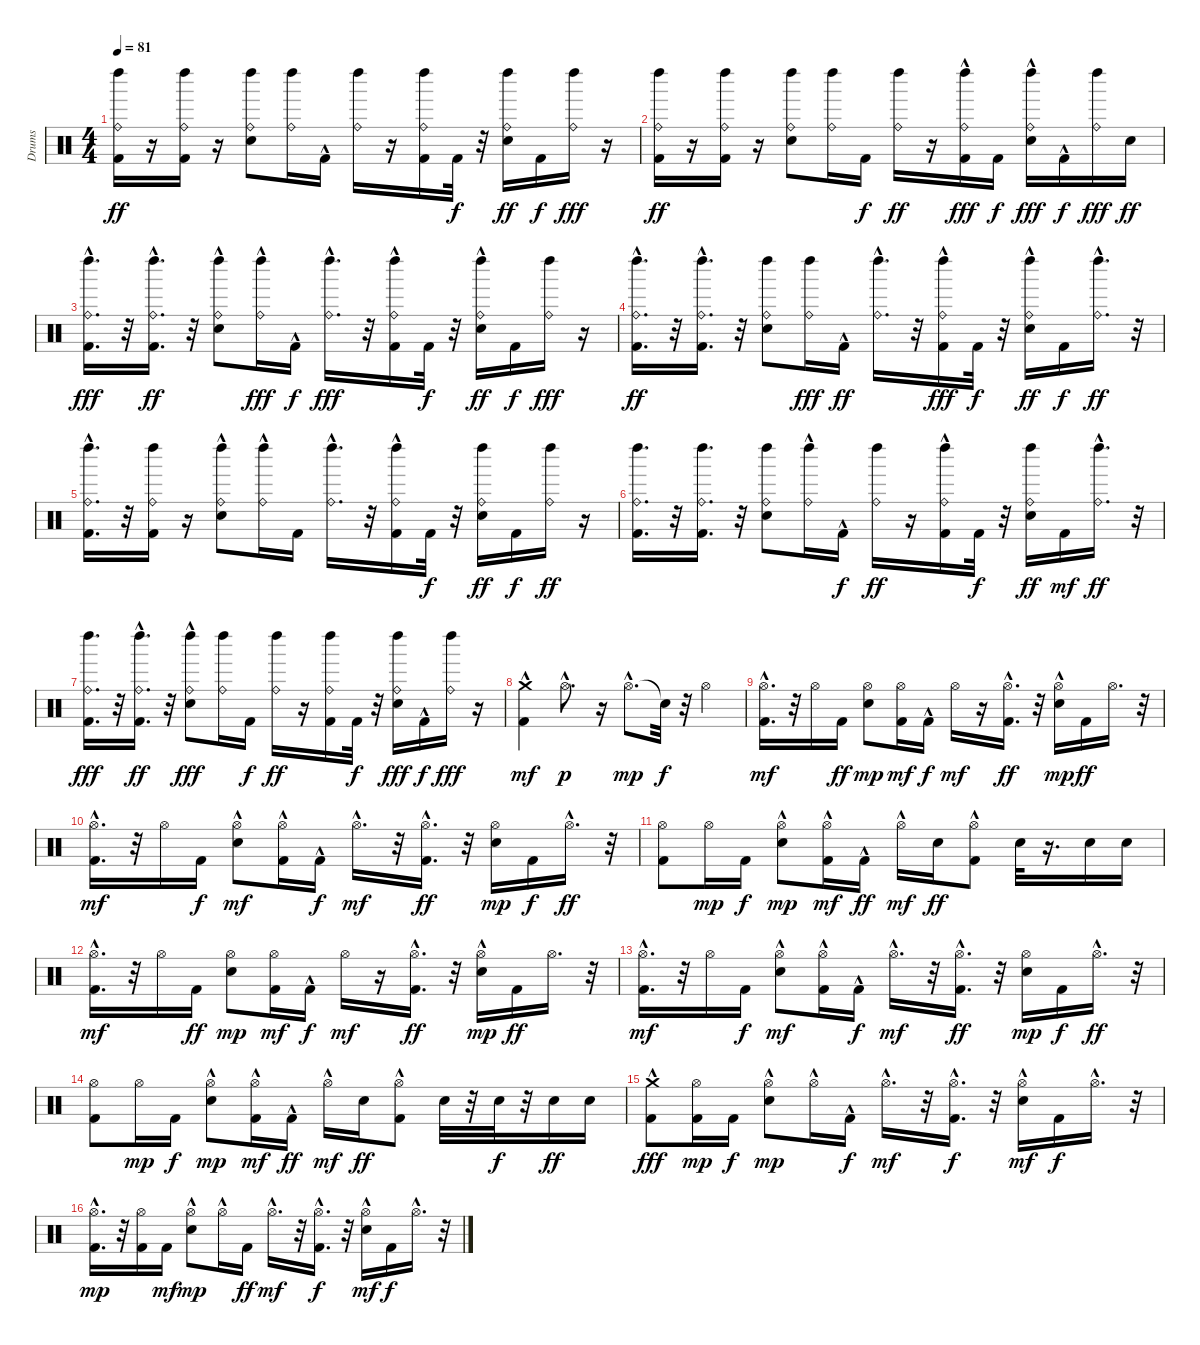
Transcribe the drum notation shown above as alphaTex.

\track ("Drums" "Drums") {instrument percussion}
\staff {score}
\articulation defaults
\ts (4 4)
\tempo 81
\clef neutral
\ks c
("Kick (hit) 2" "Ride (bell)" "Left Maraca (hit)").16{dy ff} r.16 ("Kick (hit) 2" "Left Maraca (hit)" "Ride (bell)").16 r.16 ("Electric Snare (hit)" "Left Maraca (hit)" "Ride (bell)").8 ("Left Maraca (hit)" "Ride (bell)").16 "Kick (hit) 2"{hac}.16 ("Ride (bell)" "Left Maraca (hit)").16 r.16 ("Kick (hit) 2" "Left Maraca (hit)" "Ride (bell)").16 "Kick (hit) 2".32{dy f} r.32 ("Electric Snare (hit)" "Ride (bell)" "Left Maraca (hit)").16{dy ff} "Kick (hit) 2".16{dy f} ("Left Maraca (hit)" "Ride (bell)").16{dy fff} r.16 |
("Kick (hit) 2" "Ride (bell)" "Left Maraca (hit)").16{dy ff} r.16 ("Kick (hit) 2" "Left Maraca (hit)" "Ride (bell)").16 r.16 ("Electric Snare (hit)" "Ride (bell)" "Left Maraca (hit)").8 ("Ride (bell)" "Left Maraca (hit)").16 "Kick (hit) 2".16{dy f} ("Left Maraca (hit)" "Ride (bell)").16{dy ff} r.16 ("Kick (hit) 2" "Left Maraca (hit)" "Ride (bell)"{hac}).16{dy fff} "Kick (hit) 2".16{dy f} ("Electric Snare (hit)" "Ride (bell)"{hac} "Left Maraca (hit)").16{dy fff} "Kick (hit) 2"{hac}.16{dy f} ("Left Maraca (hit)" "Ride (bell)").16{dy fff} "Electric Snare (hit)".16{dy ff} |
("Kick (hit) 2"{hac} "Ride (bell)"{hac} "Left Maraca (hit)").16{d dy fff} r.32 ("Kick (hit) 2" "Left Maraca (hit)" "Ride (bell)"{hac}).16{d dy ff} r.32 ("Electric Snare (hit)" "Left Maraca (hit)" "Ride (bell)"{hac}).8 ("Left Maraca (hit)" "Ride (bell)"{hac}).16{dy fff} "Kick (hit) 2"{hac}.16{dy f} ("Left Maraca (hit)" "Ride (bell)"{hac}).16{d dy fff} r.32 ("Kick (hit) 2" "Left Maraca (hit)" "Ride (bell)"{hac}).16 "Kick (hit) 2".32{dy f} r.32 ("Electric Snare (hit)" "Left Maraca (hit)" "Ride (bell)"{hac}).16{dy ff} "Kick (hit) 2".16{dy f} ("Ride (bell)" "Left Maraca (hit)").16{dy fff} r.16 |
("Kick (hit) 2" "Ride (bell)"{hac} "Left Maraca (hit)").16{d dy ff} r.32 ("Kick (hit) 2" "Ride (bell)"{hac} "Left Maraca (hit)").16{d} r.32 ("Electric Snare (hit)" "Left Maraca (hit)" "Ride (bell)").8 ("Ride (bell)" "Left Maraca (hit)").16{dy fff} "Kick (hit) 2"{hac}.16{dy ff} ("Left Maraca (hit)" "Ride (bell)"{hac}).16{d} r.32 ("Kick (hit) 2" "Left Maraca (hit)" "Ride (bell)"{hac}).16{dy fff} "Kick (hit) 2".32{dy f} r.32 ("Electric Snare (hit)" "Left Maraca (hit)" "Ride (bell)"{hac}).16{dy ff} "Kick (hit) 2".16{dy f} ("Left Maraca (hit)" "Ride (bell)"{hac}).16{d dy ff} r.32 |
("Kick (hit) 2" "Ride (bell)"{hac} "Left Maraca (hit)").16{d} r.32 ("Kick (hit) 2" "Left Maraca (hit)" "Ride (bell)").16 r.16 ("Electric Snare (hit)" "Left Maraca (hit)" "Ride (bell)"{hac}).8 ("Left Maraca (hit)" "Ride (bell)"{hac}).16 "Kick (hit) 2".16 ("Left Maraca (hit)" "Ride (bell)"{hac}).16{d} r.32 ("Kick (hit) 2" "Ride (bell)"{hac} "Left Maraca (hit)").16 "Kick (hit) 2".32{dy f} r.32 ("Electric Snare (hit)" "Ride (bell)" "Left Maraca (hit)").16{dy ff} "Kick (hit) 2".16{dy f} ("Left Maraca (hit)" "Ride (bell)").16{dy ff} r.16 |
("Kick (hit) 2" "Ride (bell)" "Left Maraca (hit)").16{d} r.32 ("Kick (hit) 2" "Left Maraca (hit)" "Ride (bell)").16{d} r.32 ("Electric Snare (hit)" "Left Maraca (hit)" "Ride (bell)").8 ("Left Maraca (hit)" "Ride (bell)"{hac}).16 "Kick (hit) 2"{hac}.16{dy f} ("Left Maraca (hit)" "Ride (bell)").16{dy ff} r.16 ("Kick (hit) 2" "Ride (bell)"{hac} "Left Maraca (hit)").16 "Kick (hit) 2".32{dy f} r.32 ("Electric Snare (hit)" "Left Maraca (hit)" "Ride (bell)").16{dy ff} "Kick (hit) 2".16{dy mf} ("Left Maraca (hit)" "Ride (bell)"{hac}).16{d dy ff} r.32 |
("Kick (hit) 2" "Ride (bell)" "Left Maraca (hit)").16{d dy fff} r.32 ("Kick (hit) 2" "Left Maraca (hit)" "Ride (bell)"{hac}).16{d dy ff} r.32 ("Electric Snare (hit)" "Left Maraca (hit)" "Ride (bell)"{hac}).8{dy fff} ("Ride (bell)" "Left Maraca (hit)").16 "Kick (hit) 2".16{dy f} ("Left Maraca (hit)" "Ride (bell)").16{dy ff} r.16 ("Kick (hit) 2" "Left Maraca (hit)" "Ride (bell)").16 "Kick (hit) 2".32{dy f} r.32 ("Electric Snare (hit)" "Left Maraca (hit)" "Ride (bell)").16{dy fff} "Kick (hit) 2"{hac}.16{dy f} ("Left Maraca (hit)" "Ride (bell)").16{dy fff} r.16 |
("Kick (hit) 2"{hac} "Crash medium (hit)"{hac}).4{dy mf} "Hi-Hat (open)"{hac}.8{d dy p} r.16 "Hi-Hat (open)"{hac}.8{d dy mp} "Snare (hit)"{t}.32{dy f} r.32 "Hi-Hat (open)".4 |
("Kick (hit) 2"{hac} "Hi-Hat (open)").16{d dy mf} r.32 "Hi-Hat (open)".16 "Kick (hit) 2".16{dy ff} ("Electric Snare (hit)" "Hi-Hat (open)").8{dy mp} ("Kick (hit) 2" "Hi-Hat (open)").16{dy mf} "Kick (hit) 2"{hac}.16{dy f} "Hi-Hat (open)".16{dy mf} r.16 ("Kick (hit) 2"{hac} "Hi-Hat (open)").16{d dy ff} r.32 ("Electric Snare (hit)"{hac} "Hi-Hat (open)").16{dy mp} "Kick (hit) 2".16{dy ff} "Hi-Hat (open)".16{d} r.32 |
("Kick (hit) 2"{hac} "Hi-Hat (open)").16{d dy mf} r.32 "Hi-Hat (open)".16 "Kick (hit) 2".16{dy f} ("Electric Snare (hit)" "Hi-Hat (open)"{hac}).8{dy mf} ("Kick (hit) 2" "Hi-Hat (open)"{hac}).16 "Kick (hit) 2"{hac}.16{dy f} "Hi-Hat (open)"{hac}.16{d dy mf} r.32 ("Kick (hit) 2"{hac} "Hi-Hat (open)"{hac}).16{d dy ff} r.32 ("Electric Snare (hit)" "Hi-Hat (open)").16{dy mp} "Kick (hit) 2".16{dy f} "Hi-Hat (open)"{hac}.16{d dy ff} r.32 |
("Kick (hit) 2" "Hi-Hat (open)").8 "Hi-Hat (open)".16{dy mp} "Kick (hit) 2".16{dy f} ("Electric Snare (hit)" "Hi-Hat (open)"{hac}).8{dy mp} ("Kick (hit) 2" "Hi-Hat (open)"{hac}).16{dy mf} "Kick (hit) 2"{hac}.16{dy ff} "Hi-Hat (open)"{hac}.16{dy mf} "Electric Snare (hit)".16{dy ff} ("Kick (hit) 2" "Hi-Hat (open)"{hac}).8 "Electric Snare (hit)".32 r.16{d} "Electric Snare (hit)".16 "Electric Snare (hit)".16 |
("Kick (hit) 2"{hac} "Hi-Hat (open)").16{d dy mf} r.32 "Hi-Hat (open)".16 "Kick (hit) 2".16{dy ff} ("Electric Snare (hit)" "Hi-Hat (open)").8{dy mp} ("Kick (hit) 2" "Hi-Hat (open)").16{dy mf} "Kick (hit) 2"{hac}.16{dy f} "Hi-Hat (open)".16{dy mf} r.16 ("Kick (hit) 2"{hac} "Hi-Hat (open)").16{d dy ff} r.32 ("Electric Snare (hit)"{hac} "Hi-Hat (open)").16{dy mp} "Kick (hit) 2".16{dy ff} "Hi-Hat (open)".16{d} r.32 |
("Kick (hit) 2"{hac} "Hi-Hat (open)").16{d dy mf} r.32 "Hi-Hat (open)".16 "Kick (hit) 2".16{dy f} ("Electric Snare (hit)" "Hi-Hat (open)"{hac}).8{dy mf} ("Kick (hit) 2" "Hi-Hat (open)"{hac}).16 "Kick (hit) 2"{hac}.16{dy f} "Hi-Hat (open)"{hac}.16{d dy mf} r.32 ("Kick (hit) 2"{hac} "Hi-Hat (open)"{hac}).16{d dy ff} r.32 ("Electric Snare (hit)" "Hi-Hat (open)").16{dy mp} "Kick (hit) 2".16{dy f} "Hi-Hat (open)"{hac}.16{d dy ff} r.32 |
("Kick (hit) 2" "Hi-Hat (open)").8 "Hi-Hat (open)".16{dy mp} "Kick (hit) 2".16{dy f} ("Electric Snare (hit)" "Hi-Hat (open)"{hac}).8{dy mp} ("Kick (hit) 2" "Hi-Hat (open)"{hac}).16{dy mf} "Kick (hit) 2"{hac}.16{dy ff} "Hi-Hat (open)"{hac}.16{dy mf} "Electric Snare (hit)".16{dy ff} ("Kick (hit) 2" "Hi-Hat (open)"{hac}).8 "Electric Snare (hit)".32 r.32 "Electric Snare (hit)".32{dy f} r.32 "Electric Snare (hit)".16{dy ff} "Electric Snare (hit)".16 |
("Kick (hit) 2" "Crash medium (hit)"{hac}).8{dy fff} ("Kick (hit) 2" "Hi-Hat (open)").16{dy mp} "Kick (hit) 2".16{dy f} ("Electric Snare (hit)" "Hi-Hat (open)"{hac}).8{dy mp} "Hi-Hat (open)"{hac}.16 "Kick (hit) 2"{hac}.16{dy f} "Hi-Hat (open)"{hac}.16{d dy mf} r.32 ("Kick (hit) 2"{hac} "Hi-Hat (open)"{hac}).16{d dy f} r.32 ("Electric Snare (hit)"{hac} "Hi-Hat (open)"{hac}).16{dy mf} "Kick (hit) 2".16{dy f} "Hi-Hat (open)"{hac}.16{d} r.32 |
("Kick (hit) 2"{hac} "Hi-Hat (open)").16{d dy mp} r.32 ("Kick (hit) 2" "Hi-Hat (open)").16 "Kick (hit) 2".16{dy mf} ("Electric Snare (hit)" "Hi-Hat (open)"{hac}).8{dy mp} "Hi-Hat (open)"{hac}.16 "Kick (hit) 2".16{dy ff} "Hi-Hat (open)"{hac}.16{d dy mf} r.32 ("Kick (hit) 2"{hac} "Hi-Hat (open)"{hac}).16{d dy f} r.32 ("Electric Snare (hit)" "Hi-Hat (open)"{hac}).16{dy mf} "Kick (hit) 2".16{dy f} "Hi-Hat (open)"{hac}.16{d} r.32
